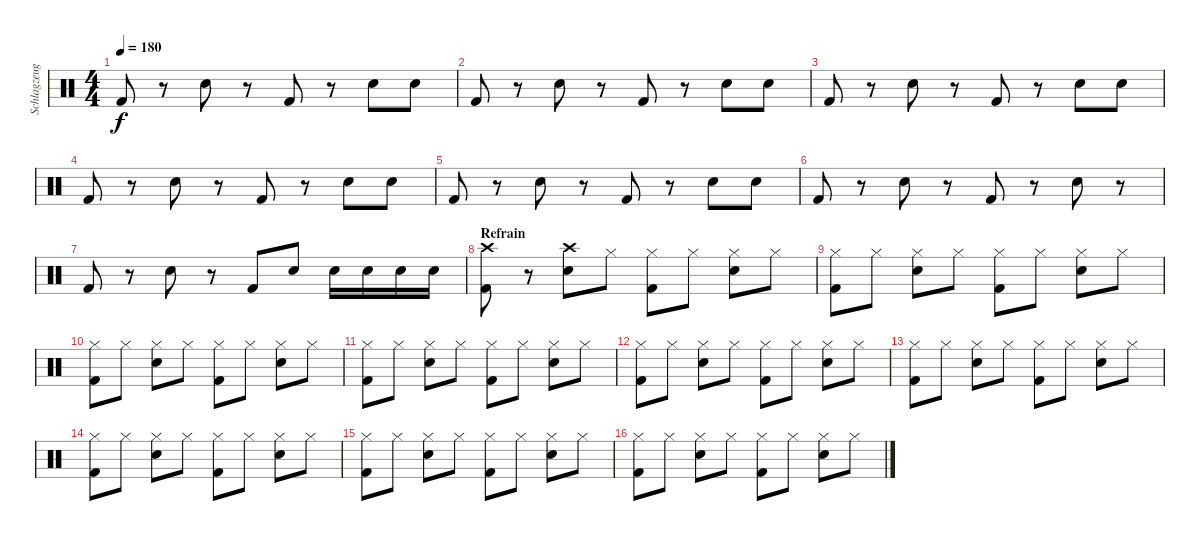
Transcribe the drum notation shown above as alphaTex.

\track ("Schlagzeug" "Schlagzeug") {instrument percussion}
\staff {score}
\articulation defaults
\ts (4 4)
\tempo 180
\clef neutral
\ks c "Kick (hit) 2".8{dy f}
r.8 "Snare (hit) 2".8 r.8 "Kick (hit) 2".8 r.8 "Snare (hit) 2".8 "Snare (hit) 2".8 |
"Kick (hit) 2".8 r.8 "Snare (hit) 2".8 r.8 "Kick (hit) 2".8 r.8 "Snare (hit) 2".8 "Snare (hit) 2".8 |
"Kick (hit) 2".8 r.8 "Snare (hit) 2".8 r.8 "Kick (hit) 2".8 r.8 "Snare (hit) 2".8 "Snare (hit) 2".8 |
"Kick (hit) 2".8 r.8 "Snare (hit) 2".8 r.8 "Kick (hit) 2".8 r.8 "Snare (hit) 2".8 "Snare (hit) 2".8 |
"Kick (hit) 2".8 r.8 "Snare (hit) 2".8 r.8 "Kick (hit) 2".8 r.8 "Snare (hit) 2".8 "Snare (hit) 2".8 |
"Kick (hit) 2".8 r.8 "Snare (hit) 2".8 r.8 "Kick (hit) 2".8 r.8 "Snare (hit) 2".8 r.8 |
"Kick (hit) 2".8 r.8 "Snare (hit) 2".8 r.8 "Kick (hit) 2".8 "Snare (hit) 2".8 "Snare (hit) 2".16 "Snare (hit) 2".16 "Snare (hit) 2".16 "Snare (hit) 2".16 |
\section ("" "Refrain")
("Kick (hit) 2" "Crash high (hit)").8 r.8 ("Snare (hit) 2" "Crash high (hit)").8 "Hi-Hat (closed)".8 ("Kick (hit) 2" "Hi-Hat (closed)").8 "Hi-Hat (closed)".8 ("Snare (hit) 2" "Hi-Hat (closed)").8 "Hi-Hat (closed)".8 |
("Kick (hit) 2" "Hi-Hat (closed)").8 "Hi-Hat (closed)".8 ("Hi-Hat (closed)" "Snare (hit) 2").8 "Hi-Hat (closed)".8 ("Hi-Hat (closed)" "Kick (hit) 2").8 "Hi-Hat (closed)".8 ("Hi-Hat (closed)" "Snare (hit) 2").8 "Hi-Hat (closed)".8 |
("Hi-Hat (closed)" "Kick (hit) 2").8 "Hi-Hat (closed)".8 ("Hi-Hat (closed)" "Snare (hit) 2").8 "Hi-Hat (closed)".8 ("Hi-Hat (closed)" "Kick (hit) 2").8 "Hi-Hat (closed)".8 ("Hi-Hat (closed)" "Snare (hit) 2").8 "Hi-Hat (closed)".8 |
("Hi-Hat (closed)" "Kick (hit) 2").8 "Hi-Hat (closed)".8 ("Hi-Hat (closed)" "Snare (hit) 2").8 "Hi-Hat (closed)".8 ("Hi-Hat (closed)" "Kick (hit) 2").8 "Hi-Hat (closed)".8 ("Hi-Hat (closed)" "Snare (hit) 2").8 "Hi-Hat (closed)".8 |
("Hi-Hat (closed)" "Kick (hit) 2").8 "Hi-Hat (closed)".8 ("Hi-Hat (closed)" "Snare (hit) 2").8 "Hi-Hat (closed)".8 ("Hi-Hat (closed)" "Kick (hit) 2").8 "Hi-Hat (closed)".8 ("Hi-Hat (closed)" "Snare (hit) 2").8 "Hi-Hat (closed)".8 |
("Hi-Hat (closed)" "Kick (hit) 2").8 "Hi-Hat (closed)".8 ("Hi-Hat (closed)" "Snare (hit) 2").8 "Hi-Hat (closed)".8 ("Hi-Hat (closed)" "Kick (hit) 2").8 "Hi-Hat (closed)".8 ("Hi-Hat (closed)" "Snare (hit) 2").8 "Hi-Hat (closed)".8 |
("Hi-Hat (closed)" "Kick (hit) 2").8 "Hi-Hat (closed)".8 ("Hi-Hat (closed)" "Snare (hit) 2").8 "Hi-Hat (closed)".8 ("Hi-Hat (closed)" "Kick (hit) 2").8 "Hi-Hat (closed)".8 ("Hi-Hat (closed)" "Snare (hit) 2").8 "Hi-Hat (closed)".8 |
("Hi-Hat (closed)" "Kick (hit) 2").8 "Hi-Hat (closed)".8 ("Hi-Hat (closed)" "Snare (hit) 2").8 "Hi-Hat (closed)".8 ("Hi-Hat (closed)" "Kick (hit) 2").8 "Hi-Hat (closed)".8 ("Hi-Hat (closed)" "Snare (hit) 2").8 "Hi-Hat (closed)".8 |
("Hi-Hat (closed)" "Kick (hit) 2").8 "Hi-Hat (closed)".8 ("Hi-Hat (closed)" "Snare (hit) 2").8 "Hi-Hat (closed)".8 ("Hi-Hat (closed)" "Kick (hit) 2").8 "Hi-Hat (closed)".8 ("Hi-Hat (closed)" "Snare (hit) 2").8 "Hi-Hat (closed)".8
